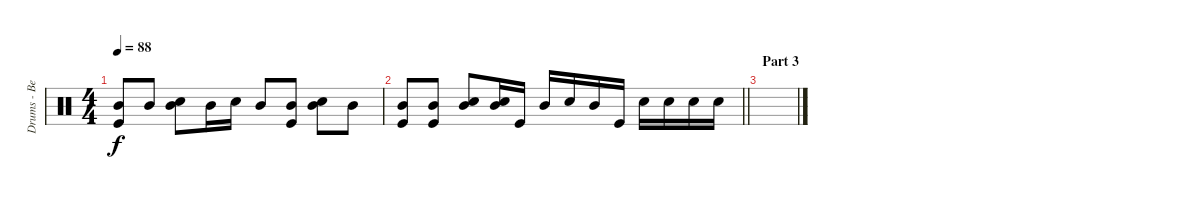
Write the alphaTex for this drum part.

\track ("Drums - Ben Johnston" "Drums - Be") {instrument percussion}
\staff {score}
\articulation defaults
\ts (4 4)
\tempo 88
\clef neutral
\ks c
("Mid Tom (hit)" "Kick (hit)").8{dy f} "Mid Tom (hit)".8 ("Mid Tom (hit)" "Snare (hit) 2").8 "Mid Tom (hit)".16 "Snare (hit) 2".16 "Mid Tom (hit)".8 ("Mid Tom (hit)" "Kick (hit)").8 ("Mid Tom (hit)" "Snare (hit) 2").8 "Mid Tom (hit)".8 |
\barLineRight lightlight
("Mid Tom (hit)" "Kick (hit)").8 ("Mid Tom (hit)" "Kick (hit)").8 ("Mid Tom (hit)" "Snare (hit) 2").8 ("Mid Tom (hit)" "Snare (hit) 2").16 "Kick (hit)".16 "Mid Tom (hit)".16 "Snare (hit) 2".16 "Mid Tom (hit)".16 "Kick (hit)".16 "Snare (hit) 2".16 "Snare (hit) 2".16 "Snare (hit) 2".16 "Snare (hit) 2".16 |
\section ("" "Part 3")
